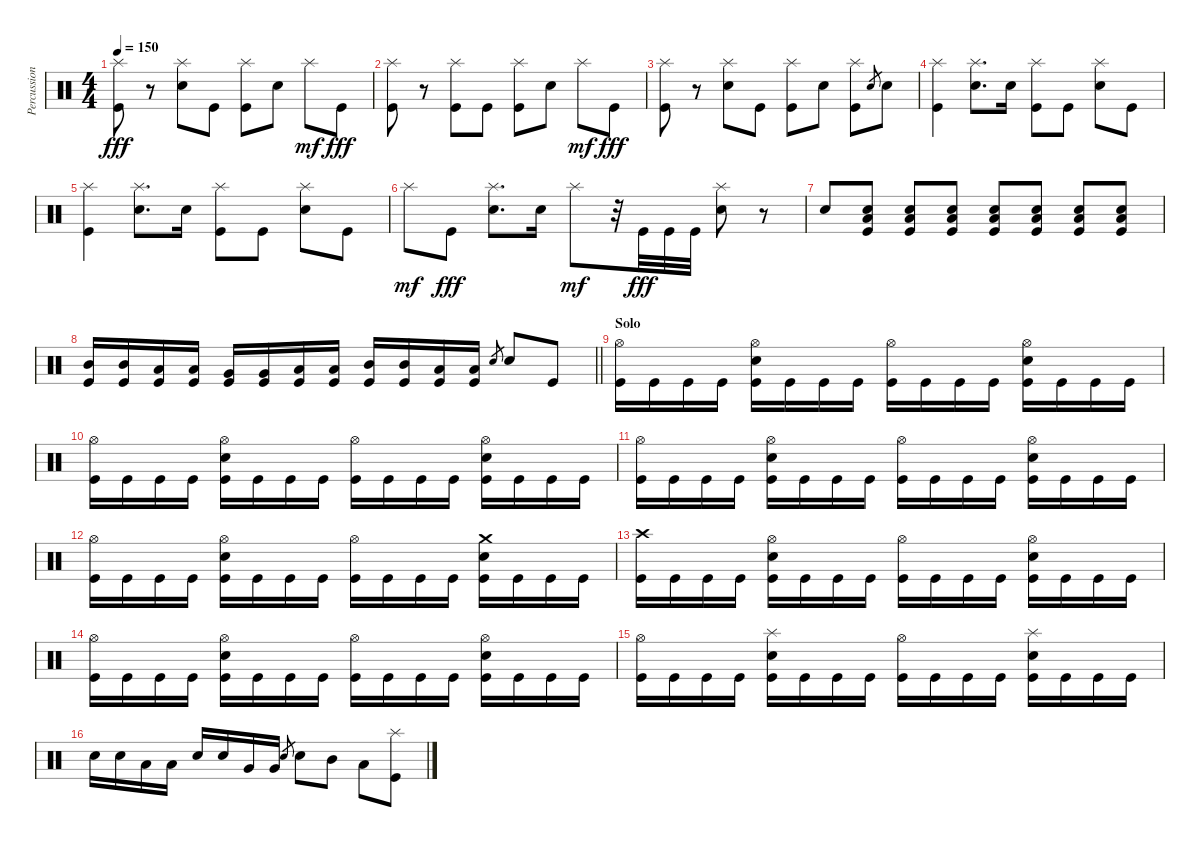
\track ("Percussion" "Percussion") {instrument percussion}
\staff {score}
\articulation defaults
\ts (4 4)
\tempo 150
\clef neutral
\ks c
("Splash (hit)"{t} "Kick (hit)").8{dy fff} r.8 ("Splash (hit)" "Electric Snare (hit)").8 "Kick (hit)".8 ("Splash (hit)" "Kick (hit)").8 "Electric Snare (hit)".8 "Splash (hit)".8{dy mf} "Kick (hit)".8{dy fff} |
("Splash (hit)" "Kick (hit)").8 r.8 ("Splash (hit)" "Kick (hit)").8 "Kick (hit)".8 ("Splash (hit)" "Kick (hit)").8 "Electric Snare (hit)".8 "Splash (hit)".8{dy mf} "Kick (hit)".8{dy fff} |
("Splash (hit)" "Kick (hit)").8 r.8 ("Splash (hit)" "Electric Snare (hit)").8 "Kick (hit)".8 ("Splash (hit)" "Kick (hit)").8 "Electric Snare (hit)".8 ("Splash (hit)" "Kick (hit)").8 "Electric Snare (hit)".8{gr} "Electric Snare (hit)".8 |
("Splash (hit)" "Kick (hit)").4 ("Splash (hit)" "Electric Snare (hit)").8{d} "Electric Snare (hit)".16 ("Splash (hit)" "Kick (hit)").8 "Kick (hit)".8 ("Splash (hit)" "Electric Snare (hit)").8 "Kick (hit)".8 |
("Splash (hit)" "Kick (hit)").4 ("Splash (hit)" "Electric Snare (hit)").8{d} "Electric Snare (hit)".16 ("Splash (hit)" "Kick (hit)").8 "Kick (hit)".8 ("Splash (hit)" "Electric Snare (hit)").8 "Kick (hit)".8 |
"Splash (hit)".8{dy mf} "Kick (hit)".8{dy fff} ("Splash (hit)" "Electric Snare (hit)").8{d} "Electric Snare (hit)".16 "Splash (hit)".8{dy mf} r.32 "Kick (hit)".32{dy fff} "Kick (hit)".32 "Kick (hit)".32 ("Splash (hit)" "Electric Snare (hit)").8 r.8 |
"Electric Snare (hit)".8 ("Electric Snare (hit)" "Low Floor Tom (hit)" "Kick (hit)").8 ("Electric Snare (hit)" "Low Floor Tom (hit)" "Kick (hit)").8 ("Electric Snare (hit)" "Low Floor Tom (hit)" "Kick (hit)").8 ("Electric Snare (hit)" "Low Floor Tom (hit)" "Kick (hit)").8 ("Electric Snare (hit)" "Low Floor Tom (hit)" "Kick (hit)").8 ("Electric Snare (hit)" "Low Floor Tom (hit)" "Kick (hit)").8 ("Electric Snare (hit)" "Low Floor Tom (hit)" "Kick (hit)").8 |
\barLineRight lightlight
("Mid Tom (hit)" "Kick (hit)").16 ("Mid Tom (hit)" "Kick (hit)").16 ("Low Tom (hit)" "Kick (hit)").16 ("Low Tom (hit)" "Kick (hit)").16 ("Very Low Tom (hit)" "Kick (hit)").16 ("Very Low Tom (hit)" "Kick (hit)").16 ("Low Floor Tom (hit)" "Kick (hit)").16 ("Low Floor Tom (hit)" "Kick (hit)").16 ("Mid Tom (hit)" "Kick (hit)").16 ("Mid Tom (hit)" "Kick (hit)").16 ("Low Tom (hit)" "Kick (hit)").16 ("Low Tom (hit)" "Kick (hit)").16 "Electric Snare (hit)".8{gr} "Electric Snare (hit)".8 "Kick (hit)".8 |
\section ("" "Solo")
("Hi-Hat (open)" "Kick (hit)").16 "Kick (hit)".16 "Kick (hit)".16 "Kick (hit)".16 ("Hi-Hat (open)" "Electric Snare (hit)" "Kick (hit)").16 "Kick (hit)".16 "Kick (hit)".16 "Kick (hit)".16 ("Hi-Hat (open)" "Kick (hit)").16 "Kick (hit)".16 "Kick (hit)".16 "Kick (hit)".16 ("Hi-Hat (open)" "Electric Snare (hit)" "Kick (hit)").16 "Kick (hit)".16 "Kick (hit)".16 "Kick (hit)".16 |
("Hi-Hat (open)" "Kick (hit)").16 "Kick (hit)".16 "Kick (hit)".16 "Kick (hit)".16 ("Hi-Hat (open)" "Electric Snare (hit)" "Kick (hit)").16 "Kick (hit)".16 "Kick (hit)".16 "Kick (hit)".16 ("Hi-Hat (open)" "Kick (hit)").16 "Kick (hit)".16 "Kick (hit)".16 "Kick (hit)".16 ("Hi-Hat (open)" "Electric Snare (hit)" "Kick (hit)").16 "Kick (hit)".16 "Kick (hit)".16 "Kick (hit)".16 |
("Hi-Hat (open)" "Kick (hit)").16 "Kick (hit)".16 "Kick (hit)".16 "Kick (hit)".16 ("Hi-Hat (open)" "Electric Snare (hit)" "Kick (hit)").16 "Kick (hit)".16 "Kick (hit)".16 "Kick (hit)".16 ("Hi-Hat (open)" "Kick (hit)").16 "Kick (hit)".16 "Kick (hit)".16 "Kick (hit)".16 ("Hi-Hat (open)" "Electric Snare (hit)" "Kick (hit)").16 "Kick (hit)".16 "Kick (hit)".16 "Kick (hit)".16 |
("Hi-Hat (open)" "Kick (hit)").16 "Kick (hit)".16 "Kick (hit)".16 "Kick (hit)".16 ("Hi-Hat (open)" "Electric Snare (hit)" "Kick (hit)").16 "Kick (hit)".16 "Kick (hit)".16 "Kick (hit)".16 ("Hi-Hat (open)" "Kick (hit)").16 "Kick (hit)".16 "Kick (hit)".16 "Kick (hit)".16 ("Crash medium (hit)" "Electric Snare (hit)" "Kick (hit)").16 "Kick (hit)".16 "Kick (hit)".16 "Kick (hit)".16 |
("Crash high (hit)" "Kick (hit)").16 "Kick (hit)".16 "Kick (hit)".16 "Kick (hit)".16 ("Hi-Hat (open)" "Electric Snare (hit)" "Kick (hit)").16 "Kick (hit)".16 "Kick (hit)".16 "Kick (hit)".16 ("Hi-Hat (open)" "Kick (hit)").16 "Kick (hit)".16 "Kick (hit)".16 "Kick (hit)".16 ("Hi-Hat (open)" "Electric Snare (hit)" "Kick (hit)").16 "Kick (hit)".16 "Kick (hit)".16 "Kick (hit)".16 |
("Hi-Hat (open)" "Kick (hit)").16 "Kick (hit)".16 "Kick (hit)".16 "Kick (hit)".16 ("Hi-Hat (open)" "Electric Snare (hit)" "Kick (hit)").16 "Kick (hit)".16 "Kick (hit)".16 "Kick (hit)".16 ("Hi-Hat (open)" "Kick (hit)").16 "Kick (hit)".16 "Kick (hit)".16 "Kick (hit)".16 ("Hi-Hat (open)" "Electric Snare (hit)" "Kick (hit)").16 "Kick (hit)".16 "Kick (hit)".16 "Kick (hit)".16 |
("Hi-Hat (open)" "Kick (hit)").16 "Kick (hit)".16 "Kick (hit)".16 "Kick (hit)".16 ("Splash (hit)" "Electric Snare (hit)" "Kick (hit)").16 "Kick (hit)".16 "Kick (hit)".16 "Kick (hit)".16 ("Hi-Hat (open)" "Kick (hit)").16 "Kick (hit)".16 "Kick (hit)".16 "Kick (hit)".16 ("Splash (hit)" "Electric Snare (hit)" "Kick (hit)").16 "Kick (hit)".16 "Kick (hit)".16 "Kick (hit)".16 |
"Electric Snare (hit)".16 "Electric Snare (hit)".16 "Low Tom (hit)".16 "Low Tom (hit)".16 "Electric Snare (hit)".16 "Electric Snare (hit)".16 "Very Low Tom (hit)".16 "Very Low Tom (hit)".16 "Electric Snare (hit)".8{gr} "Electric Snare (hit)".8 "Mid Tom (hit)".8 "Low Tom (hit)".8 ("Splash (hit)" "Kick (hit)").8
